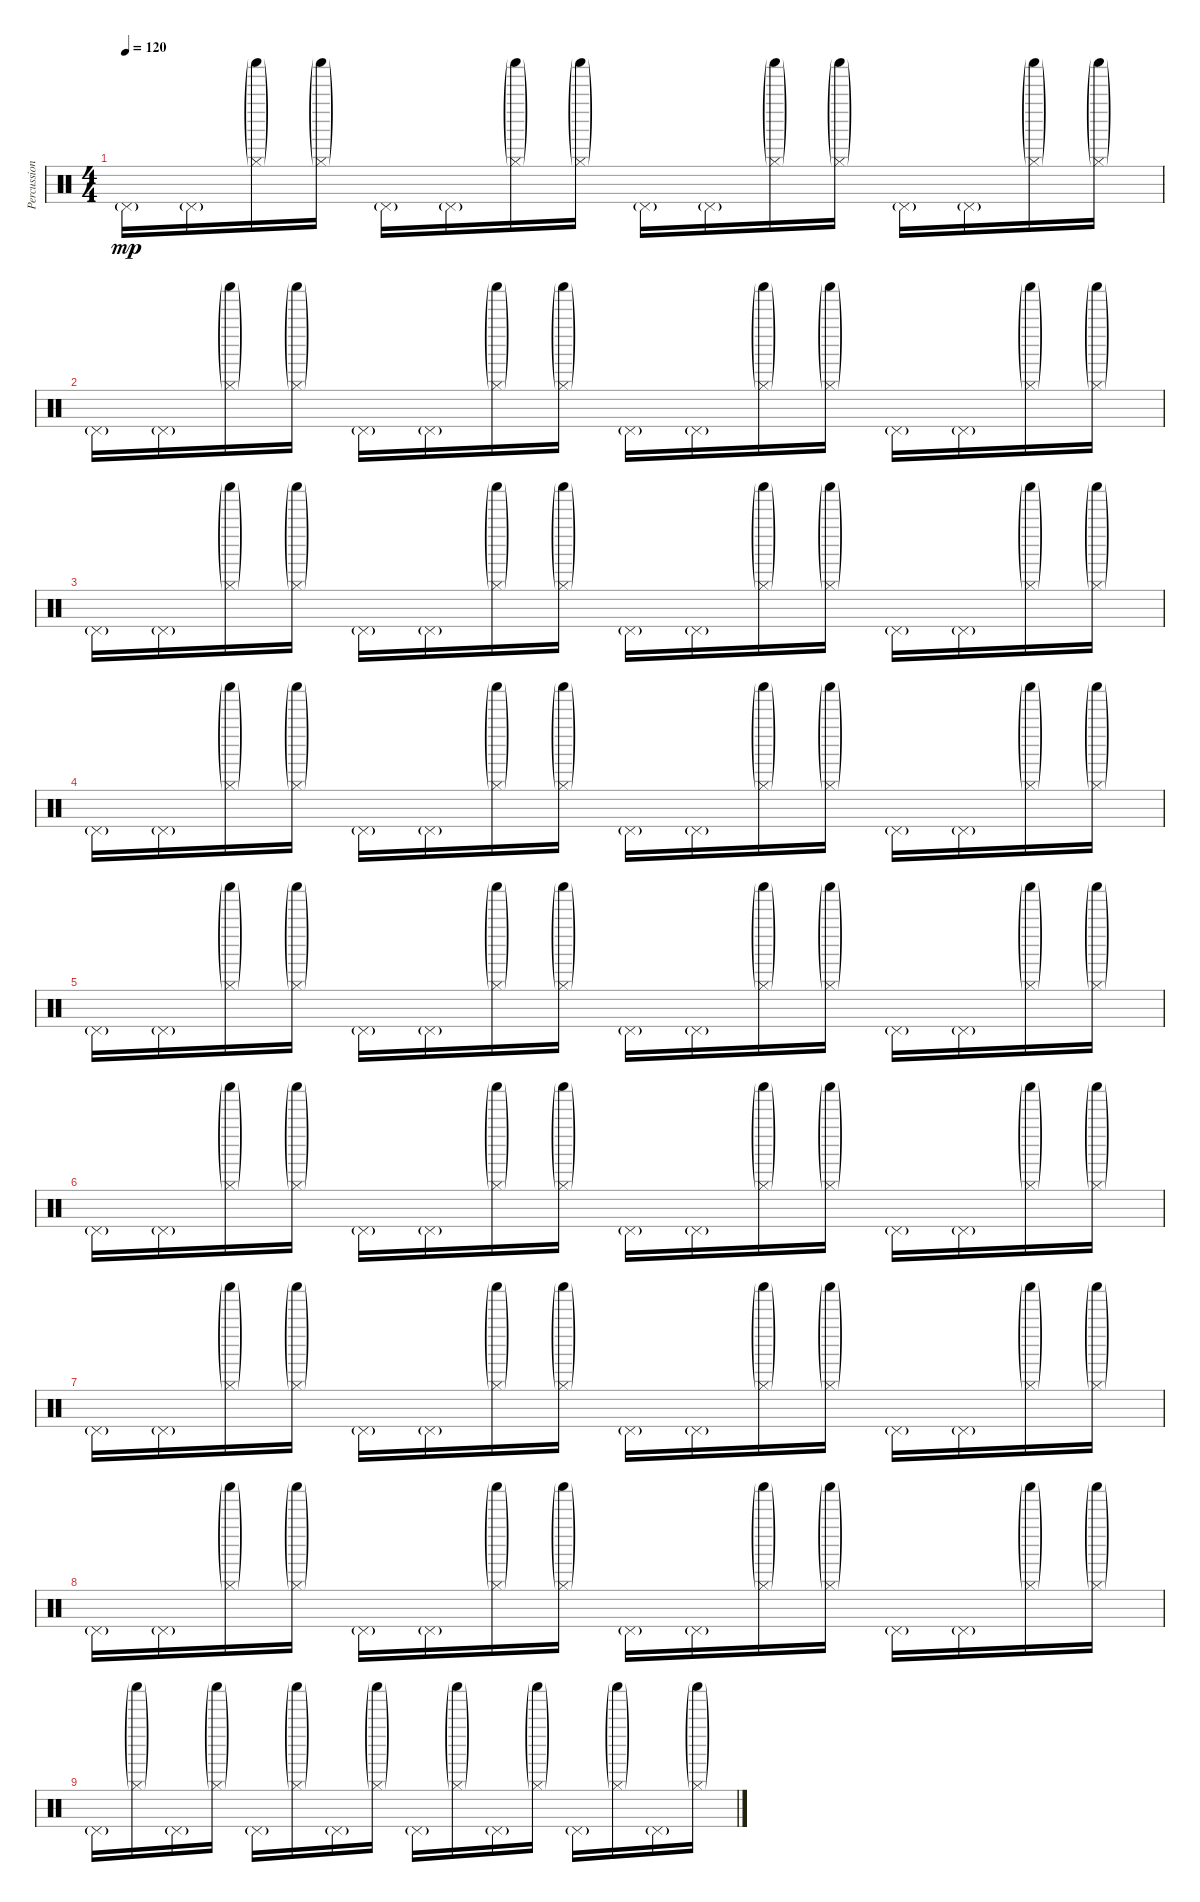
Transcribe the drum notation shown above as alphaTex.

\track ("Percussion" "Percussion") {instrument percussion}
\staff {score}
\articulation defaults
\ts (4 4)
\tempo 120
\clef neutral
\ks c "Pedal Hi-Hat (hit)"{g}.16{dy mp} "Pedal Hi-Hat (hit)"{g}.16
("Hi-Hat (closed)"{g} "Shaker (hit)"{g}).16 ("Hi-Hat (closed)"{g} "Shaker (hit)"{g}).16 "Pedal Hi-Hat (hit)"{g}.16 "Pedal Hi-Hat (hit)"{g}.16 ("Hi-Hat (closed)"{g} "Shaker (hit)"{g}).16 ("Hi-Hat (closed)"{g} "Shaker (hit)"{g}).16 "Pedal Hi-Hat (hit)"{g}.16 "Pedal Hi-Hat (hit)"{g}.16 ("Hi-Hat (closed)"{g} "Shaker (hit)"{g}).16 ("Hi-Hat (closed)"{g} "Shaker (hit)"{g}).16 "Pedal Hi-Hat (hit)"{g}.16 "Pedal Hi-Hat (hit)"{g}.16 ("Hi-Hat (closed)"{g} "Shaker (hit)"{g}).16 ("Hi-Hat (closed)"{g} "Shaker (hit)"{g}).16 |
"Pedal Hi-Hat (hit)"{g}.16 "Pedal Hi-Hat (hit)"{g}.16 ("Hi-Hat (closed)"{g} "Shaker (hit)"{g}).16 ("Hi-Hat (closed)"{g} "Shaker (hit)"{g}).16 "Pedal Hi-Hat (hit)"{g}.16 "Pedal Hi-Hat (hit)"{g}.16 ("Hi-Hat (closed)"{g} "Shaker (hit)"{g}).16 ("Hi-Hat (closed)"{g} "Shaker (hit)"{g}).16 "Pedal Hi-Hat (hit)"{g}.16 "Pedal Hi-Hat (hit)"{g}.16 ("Hi-Hat (closed)"{g} "Shaker (hit)"{g}).16 ("Hi-Hat (closed)"{g} "Shaker (hit)"{g}).16 "Pedal Hi-Hat (hit)"{g}.16 "Pedal Hi-Hat (hit)"{g}.16 ("Hi-Hat (closed)"{g} "Shaker (hit)"{g}).16 ("Hi-Hat (closed)"{g} "Shaker (hit)"{g}).16 |
"Pedal Hi-Hat (hit)"{g}.16 "Pedal Hi-Hat (hit)"{g}.16 ("Hi-Hat (closed)"{g} "Shaker (hit)"{g}).16 ("Hi-Hat (closed)"{g} "Shaker (hit)"{g}).16 "Pedal Hi-Hat (hit)"{g}.16 "Pedal Hi-Hat (hit)"{g}.16 ("Hi-Hat (closed)"{g} "Shaker (hit)"{g}).16 ("Hi-Hat (closed)"{g} "Shaker (hit)"{g}).16 "Pedal Hi-Hat (hit)"{g}.16 "Pedal Hi-Hat (hit)"{g}.16 ("Hi-Hat (closed)"{g} "Shaker (hit)"{g}).16 ("Hi-Hat (closed)"{g} "Shaker (hit)"{g}).16 "Pedal Hi-Hat (hit)"{g}.16 "Pedal Hi-Hat (hit)"{g}.16 ("Hi-Hat (closed)"{g} "Shaker (hit)"{g}).16 ("Hi-Hat (closed)"{g} "Shaker (hit)"{g}).16 |
"Pedal Hi-Hat (hit)"{g}.16 "Pedal Hi-Hat (hit)"{g}.16 ("Hi-Hat (closed)"{g} "Shaker (hit)"{g}).16 ("Hi-Hat (closed)"{g} "Shaker (hit)"{g}).16 "Pedal Hi-Hat (hit)"{g}.16 "Pedal Hi-Hat (hit)"{g}.16 ("Hi-Hat (closed)"{g} "Shaker (hit)"{g}).16 ("Hi-Hat (closed)"{g} "Shaker (hit)"{g}).16 "Pedal Hi-Hat (hit)"{g}.16 "Pedal Hi-Hat (hit)"{g}.16 ("Hi-Hat (closed)"{g} "Shaker (hit)"{g}).16 ("Hi-Hat (closed)"{g} "Shaker (hit)"{g}).16 "Pedal Hi-Hat (hit)"{g}.16 "Pedal Hi-Hat (hit)"{g}.16 ("Hi-Hat (closed)"{g} "Shaker (hit)"{g}).16 ("Hi-Hat (closed)"{g} "Shaker (hit)"{g}).16 |
"Pedal Hi-Hat (hit)"{g}.16 "Pedal Hi-Hat (hit)"{g}.16 ("Hi-Hat (closed)"{g} "Shaker (hit)"{g}).16 ("Hi-Hat (closed)"{g} "Shaker (hit)"{g}).16 "Pedal Hi-Hat (hit)"{g}.16 "Pedal Hi-Hat (hit)"{g}.16 ("Hi-Hat (closed)"{g} "Shaker (hit)"{g}).16 ("Hi-Hat (closed)"{g} "Shaker (hit)"{g}).16 "Pedal Hi-Hat (hit)"{g}.16 "Pedal Hi-Hat (hit)"{g}.16 ("Hi-Hat (closed)"{g} "Shaker (hit)"{g}).16 ("Hi-Hat (closed)"{g} "Shaker (hit)"{g}).16 "Pedal Hi-Hat (hit)"{g}.16 "Pedal Hi-Hat (hit)"{g}.16 ("Hi-Hat (closed)"{g} "Shaker (hit)"{g}).16 ("Hi-Hat (closed)"{g} "Shaker (hit)"{g}).16 |
"Pedal Hi-Hat (hit)"{g}.16 "Pedal Hi-Hat (hit)"{g}.16 ("Hi-Hat (closed)"{g} "Shaker (hit)"{g}).16 ("Hi-Hat (closed)"{g} "Shaker (hit)"{g}).16 "Pedal Hi-Hat (hit)"{g}.16 "Pedal Hi-Hat (hit)"{g}.16 ("Hi-Hat (closed)"{g} "Shaker (hit)"{g}).16 ("Hi-Hat (closed)"{g} "Shaker (hit)"{g}).16 "Pedal Hi-Hat (hit)"{g}.16 "Pedal Hi-Hat (hit)"{g}.16 ("Hi-Hat (closed)"{g} "Shaker (hit)"{g}).16 ("Hi-Hat (closed)"{g} "Shaker (hit)"{g}).16 "Pedal Hi-Hat (hit)"{g}.16 "Pedal Hi-Hat (hit)"{g}.16 ("Hi-Hat (closed)"{g} "Shaker (hit)"{g}).16 ("Hi-Hat (closed)"{g} "Shaker (hit)"{g}).16 |
"Pedal Hi-Hat (hit)"{g}.16 "Pedal Hi-Hat (hit)"{g}.16 ("Hi-Hat (closed)"{g} "Shaker (hit)"{g}).16 ("Hi-Hat (closed)"{g} "Shaker (hit)"{g}).16 "Pedal Hi-Hat (hit)"{g}.16 "Pedal Hi-Hat (hit)"{g}.16 ("Hi-Hat (closed)"{g} "Shaker (hit)"{g}).16 ("Hi-Hat (closed)"{g} "Shaker (hit)"{g}).16 "Pedal Hi-Hat (hit)"{g}.16 "Pedal Hi-Hat (hit)"{g}.16 ("Hi-Hat (closed)"{g} "Shaker (hit)"{g}).16 ("Hi-Hat (closed)"{g} "Shaker (hit)"{g}).16 "Pedal Hi-Hat (hit)"{g}.16 "Pedal Hi-Hat (hit)"{g}.16 ("Hi-Hat (closed)"{g} "Shaker (hit)"{g}).16 ("Hi-Hat (closed)"{g} "Shaker (hit)"{g}).16 |
"Pedal Hi-Hat (hit)"{g}.16 "Pedal Hi-Hat (hit)"{g}.16 ("Hi-Hat (closed)"{g} "Shaker (hit)"{g}).16 ("Hi-Hat (closed)"{g} "Shaker (hit)"{g}).16 "Pedal Hi-Hat (hit)"{g}.16 "Pedal Hi-Hat (hit)"{g}.16 ("Hi-Hat (closed)"{g} "Shaker (hit)"{g}).16 ("Hi-Hat (closed)"{g} "Shaker (hit)"{g}).16 "Pedal Hi-Hat (hit)"{g}.16 "Pedal Hi-Hat (hit)"{g}.16 ("Hi-Hat (closed)"{g} "Shaker (hit)"{g}).16 ("Hi-Hat (closed)"{g} "Shaker (hit)"{g}).16 "Pedal Hi-Hat (hit)"{g}.16 "Pedal Hi-Hat (hit)"{g}.16 ("Hi-Hat (closed)"{g} "Shaker (hit)"{g}).16 ("Hi-Hat (closed)"{g} "Shaker (hit)"{g}).16 |
"Pedal Hi-Hat (hit)"{g}.16{volume 0} ("Hi-Hat (closed)"{g} "Shaker (hit)"{g}).16 "Pedal Hi-Hat (hit)"{g}.16 ("Hi-Hat (closed)"{g} "Shaker (hit)"{g}).16 "Pedal Hi-Hat (hit)"{g}.16 ("Hi-Hat (closed)"{g} "Shaker (hit)"{g}).16 "Pedal Hi-Hat (hit)"{g}.16 ("Hi-Hat (closed)"{g} "Shaker (hit)"{g}).16 "Pedal Hi-Hat (hit)"{g}.16 ("Hi-Hat (closed)"{g} "Shaker (hit)"{g}).16 "Pedal Hi-Hat (hit)"{g}.16 ("Hi-Hat (closed)"{g} "Shaker (hit)"{g}).16 "Pedal Hi-Hat (hit)"{g}.16 ("Hi-Hat (closed)"{g} "Shaker (hit)"{g}).16 "Pedal Hi-Hat (hit)"{g}.16 ("Hi-Hat (closed)"{g} "Shaker (hit)"{g}).16
